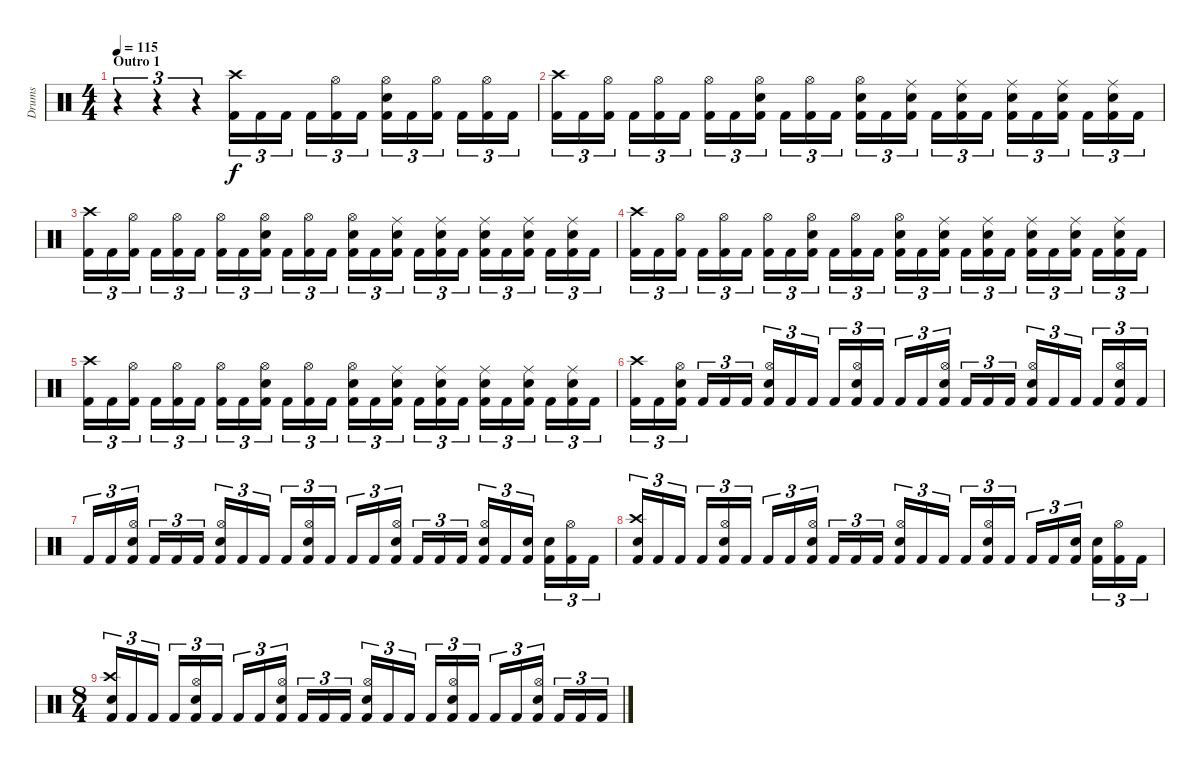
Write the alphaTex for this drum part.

\track ("Drums" "Drums") {instrument percussion}
\staff {score}
\articulation defaults
\ts (4 4)
\section ("" "Outro 1")
\tempo 115
\clef neutral
\ks c
r.4{tu (3 2) dy f} r.4{tu (3 2)} r.4{tu (3 2)} ("Kick (hit) 2" "Crash high (hit)").16{tu (3 2)} "Kick (hit) 2".16{tu (3 2)} "Kick (hit) 2".16{tu (3 2) beam splitsecondary} "Kick (hit) 2".16{tu (3 2)} ("Kick (hit) 2" "Hi-Hat (open)").16{tu (3 2)} "Kick (hit) 2".16{tu (3 2)} ("Kick (hit) 2" "Hi-Hat (open)" "Snare (hit) 2").16{tu (3 2)} "Kick (hit) 2".16{tu (3 2)} ("Kick (hit) 2" "Hi-Hat (open)").16{tu (3 2) beam splitsecondary} "Kick (hit) 2".16{tu (3 2)} ("Kick (hit) 2" "Hi-Hat (open)").16{tu (3 2)} "Kick (hit) 2".16{tu (3 2)} |
("Kick (hit) 2" "Crash high (hit)").16{tu (3 2)} "Kick (hit) 2".16{tu (3 2)} ("Kick (hit) 2" "Hi-Hat (open)").16{tu (3 2) beam splitsecondary} "Kick (hit) 2".16{tu (3 2)} ("Kick (hit) 2" "Hi-Hat (open)").16{tu (3 2)} "Kick (hit) 2".16{tu (3 2)} ("Kick (hit) 2" "Hi-Hat (open)").16{tu (3 2)} "Kick (hit) 2".16{tu (3 2)} ("Kick (hit) 2" "Hi-Hat (open)" "Snare (hit) 2").16{tu (3 2) beam splitsecondary} "Kick (hit) 2".16{tu (3 2)} ("Kick (hit) 2" "Hi-Hat (open)").16{tu (3 2)} "Kick (hit) 2".16{tu (3 2)} ("Kick (hit) 2" "Snare (hit) 2" "Hi-Hat (open)").16{tu (3 2)} "Kick (hit) 2".16{tu (3 2)} ("Kick (hit) 2" "Snare (hit) 2" "Ride (middle)").16{tu (3 2) beam splitsecondary} "Kick (hit) 2".16{tu (3 2)} ("Kick (hit) 2" "Snare (hit) 2" "Ride (middle)").16{tu (3 2)} "Kick (hit) 2".16{tu (3 2)} ("Kick (hit) 2" "Snare (hit) 2" "Ride (middle)").16{tu (3 2)} "Kick (hit) 2".16{tu (3 2)} ("Kick (hit) 2" "Snare (hit) 2" "Ride (middle)").16{tu (3 2) beam splitsecondary} "Kick (hit) 2".16{tu (3 2)} ("Kick (hit) 2" "Snare (hit) 2" "Ride (middle)").16{tu (3 2)} "Kick (hit) 2".16{tu (3 2)} |
("Kick (hit) 2" "Crash high (hit)").16{tu (3 2)} "Kick (hit) 2".16{tu (3 2)} ("Kick (hit) 2" "Hi-Hat (open)").16{tu (3 2) beam splitsecondary} "Kick (hit) 2".16{tu (3 2)} ("Kick (hit) 2" "Hi-Hat (open)").16{tu (3 2)} "Kick (hit) 2".16{tu (3 2)} ("Kick (hit) 2" "Hi-Hat (open)").16{tu (3 2)} "Kick (hit) 2".16{tu (3 2)} ("Kick (hit) 2" "Hi-Hat (open)" "Snare (hit) 2").16{tu (3 2) beam splitsecondary} "Kick (hit) 2".16{tu (3 2)} ("Kick (hit) 2" "Hi-Hat (open)").16{tu (3 2)} "Kick (hit) 2".16{tu (3 2)} ("Kick (hit) 2" "Snare (hit) 2" "Hi-Hat (open)").16{tu (3 2)} "Kick (hit) 2".16{tu (3 2)} ("Kick (hit) 2" "Snare (hit) 2" "Ride (middle)").16{tu (3 2) beam splitsecondary} "Kick (hit) 2".16{tu (3 2)} ("Kick (hit) 2" "Snare (hit) 2" "Ride (middle)").16{tu (3 2)} "Kick (hit) 2".16{tu (3 2)} ("Kick (hit) 2" "Snare (hit) 2" "Ride (middle)").16{tu (3 2)} "Kick (hit) 2".16{tu (3 2)} ("Kick (hit) 2" "Snare (hit) 2" "Ride (middle)").16{tu (3 2) beam splitsecondary} "Kick (hit) 2".16{tu (3 2)} ("Kick (hit) 2" "Snare (hit) 2" "Ride (middle)").16{tu (3 2)} "Kick (hit) 2".16{tu (3 2)} |
("Kick (hit) 2" "Crash high (hit)").16{tu (3 2)} "Kick (hit) 2".16{tu (3 2)} ("Kick (hit) 2" "Hi-Hat (open)").16{tu (3 2) beam splitsecondary} "Kick (hit) 2".16{tu (3 2)} ("Kick (hit) 2" "Hi-Hat (open)").16{tu (3 2)} "Kick (hit) 2".16{tu (3 2)} ("Kick (hit) 2" "Hi-Hat (open)").16{tu (3 2)} "Kick (hit) 2".16{tu (3 2)} ("Kick (hit) 2" "Hi-Hat (open)" "Snare (hit) 2").16{tu (3 2) beam splitsecondary} "Kick (hit) 2".16{tu (3 2)} ("Kick (hit) 2" "Hi-Hat (open)").16{tu (3 2)} "Kick (hit) 2".16{tu (3 2)} ("Kick (hit) 2" "Snare (hit) 2" "Hi-Hat (open)").16{tu (3 2)} "Kick (hit) 2".16{tu (3 2)} ("Kick (hit) 2" "Snare (hit) 2" "Ride (middle)").16{tu (3 2) beam splitsecondary} "Kick (hit) 2".16{tu (3 2)} ("Kick (hit) 2" "Snare (hit) 2" "Ride (middle)").16{tu (3 2)} "Kick (hit) 2".16{tu (3 2)} ("Kick (hit) 2" "Snare (hit) 2" "Ride (middle)").16{tu (3 2)} "Kick (hit) 2".16{tu (3 2)} ("Kick (hit) 2" "Snare (hit) 2" "Ride (middle)").16{tu (3 2) beam splitsecondary} "Kick (hit) 2".16{tu (3 2)} ("Kick (hit) 2" "Snare (hit) 2" "Ride (middle)").16{tu (3 2)} "Kick (hit) 2".16{tu (3 2)} |
("Kick (hit) 2" "Crash high (hit)").16{tu (3 2)} "Kick (hit) 2".16{tu (3 2)} ("Kick (hit) 2" "Hi-Hat (open)").16{tu (3 2) beam splitsecondary} "Kick (hit) 2".16{tu (3 2)} ("Kick (hit) 2" "Hi-Hat (open)").16{tu (3 2)} "Kick (hit) 2".16{tu (3 2)} ("Kick (hit) 2" "Hi-Hat (open)").16{tu (3 2)} "Kick (hit) 2".16{tu (3 2)} ("Kick (hit) 2" "Hi-Hat (open)" "Snare (hit) 2").16{tu (3 2) beam splitsecondary} "Kick (hit) 2".16{tu (3 2)} ("Kick (hit) 2" "Hi-Hat (open)").16{tu (3 2)} "Kick (hit) 2".16{tu (3 2)} ("Kick (hit) 2" "Snare (hit) 2" "Hi-Hat (open)").16{tu (3 2)} "Kick (hit) 2".16{tu (3 2)} ("Kick (hit) 2" "Snare (hit) 2" "Ride (middle)").16{tu (3 2) beam splitsecondary} "Kick (hit) 2".16{tu (3 2)} ("Kick (hit) 2" "Snare (hit) 2" "Ride (middle)").16{tu (3 2)} "Kick (hit) 2".16{tu (3 2)} ("Kick (hit) 2" "Snare (hit) 2" "Ride (middle)").16{tu (3 2)} "Kick (hit) 2".16{tu (3 2)} ("Kick (hit) 2" "Snare (hit) 2" "Ride (middle)").16{tu (3 2) beam splitsecondary} "Kick (hit) 2".16{tu (3 2)} ("Kick (hit) 2" "Snare (hit) 2" "Ride (middle)").16{tu (3 2)} "Kick (hit) 2".16{tu (3 2)} |
("Kick (hit) 2" "Crash high (hit)").16{tu (3 2)} "Kick (hit) 2".16{tu (3 2)} ("Kick (hit) 2" "Snare (hit) 2" "Hi-Hat (open)").16{tu (3 2) beam splitsecondary} "Kick (hit) 2".16{tu (3 2)} "Kick (hit) 2".16{tu (3 2)} "Kick (hit) 2".16{tu (3 2)} ("Kick (hit) 2" "Hi-Hat (open)" "Snare (hit) 2").16{tu (3 2)} "Kick (hit) 2".16{tu (3 2)} "Kick (hit) 2".16{tu (3 2) beam splitsecondary} "Kick (hit) 2".16{tu (3 2)} ("Kick (hit) 2" "Snare (hit) 2" "Hi-Hat (open)").16{tu (3 2)} "Kick (hit) 2".16{tu (3 2)} "Kick (hit) 2".16{tu (3 2)} "Kick (hit) 2".16{tu (3 2)} ("Kick (hit) 2" "Hi-Hat (open)" "Snare (hit) 2").16{tu (3 2) beam splitsecondary} "Kick (hit) 2".16{tu (3 2)} "Kick (hit) 2".16{tu (3 2)} "Kick (hit) 2".16{tu (3 2)} ("Kick (hit) 2" "Snare (hit) 2" "Hi-Hat (open)").16{tu (3 2)} "Kick (hit) 2".16{tu (3 2)} "Kick (hit) 2".16{tu (3 2) beam splitsecondary} "Kick (hit) 2".16{tu (3 2)} ("Kick (hit) 2" "Snare (hit) 2" "Hi-Hat (open)").16{tu (3 2)} "Kick (hit) 2".16{tu (3 2)} |
"Kick (hit) 2".16{tu (3 2)} "Kick (hit) 2".16{tu (3 2)} ("Kick (hit) 2" "Snare (hit) 2" "Hi-Hat (open)").16{tu (3 2) beam splitsecondary} "Kick (hit) 2".16{tu (3 2)} "Kick (hit) 2".16{tu (3 2)} "Kick (hit) 2".16{tu (3 2)} ("Kick (hit) 2" "Hi-Hat (open)" "Snare (hit) 2").16{tu (3 2)} "Kick (hit) 2".16{tu (3 2)} "Kick (hit) 2".16{tu (3 2) beam splitsecondary} "Kick (hit) 2".16{tu (3 2)} ("Kick (hit) 2" "Snare (hit) 2" "Hi-Hat (open)").16{tu (3 2)} "Kick (hit) 2".16{tu (3 2)} "Kick (hit) 2".16{tu (3 2)} "Kick (hit) 2".16{tu (3 2)} ("Kick (hit) 2" "Hi-Hat (open)" "Snare (hit) 2").16{tu (3 2) beam splitsecondary} "Kick (hit) 2".16{tu (3 2)} "Kick (hit) 2".16{tu (3 2)} "Kick (hit) 2".16{tu (3 2)} ("Kick (hit) 2" "Snare (hit) 2" "Hi-Hat (open)").16{tu (3 2)} "Kick (hit) 2".16{tu (3 2)} ("Kick (hit) 2" "Snare (hit) 2").16{tu (3 2) beam splitsecondary} ("Kick (hit) 2" "Snare (hit) 2").16{tu (3 2)} ("Kick (hit) 2" "Hi-Hat (open)").16{tu (3 2)} "Kick (hit) 2".16{tu (3 2)} |
("Kick (hit) 2" "Crash high (hit)" "Snare (hit) 2").16{tu (3 2)} "Kick (hit) 2".16{tu (3 2)} "Kick (hit) 2".16{tu (3 2) beam splitsecondary} "Kick (hit) 2".16{tu (3 2)} ("Kick (hit) 2" "Snare (hit) 2" "Hi-Hat (open)").16{tu (3 2)} "Kick (hit) 2".16{tu (3 2)} "Kick (hit) 2".16{tu (3 2)} "Kick (hit) 2".16{tu (3 2)} ("Kick (hit) 2" "Snare (hit) 2" "Hi-Hat (open)").16{tu (3 2) beam splitsecondary} "Kick (hit) 2".16{tu (3 2)} "Kick (hit) 2".16{tu (3 2)} "Kick (hit) 2".16{tu (3 2)} ("Kick (hit) 2" "Snare (hit) 2" "Hi-Hat (open)").16{tu (3 2)} "Kick (hit) 2".16{tu (3 2)} "Kick (hit) 2".16{tu (3 2) beam splitsecondary} "Kick (hit) 2".16{tu (3 2)} ("Kick (hit) 2" "Hi-Hat (open)" "Snare (hit) 2").16{tu (3 2)} "Kick (hit) 2".16{tu (3 2)} "Kick (hit) 2".16{tu (3 2)} "Kick (hit) 2".16{tu (3 2)} ("Kick (hit) 2" "Snare (hit) 2").16{tu (3 2) beam splitsecondary} ("Kick (hit) 2" "Snare (hit) 2").16{tu (3 2)} ("Kick (hit) 2" "Hi-Hat (open)").16{tu (3 2)} "Kick (hit) 2".16{tu (3 2)} |
\ts (8 4)
("Kick (hit) 2" "Crash high (hit)" "Snare (hit) 2").16{tu (3 2)} "Kick (hit) 2".16{tu (3 2)} "Kick (hit) 2".16{tu (3 2) beam splitsecondary} "Kick (hit) 2".16{tu (3 2)} ("Kick (hit) 2" "Snare (hit) 2" "Hi-Hat (open)").16{tu (3 2)} "Kick (hit) 2".16{tu (3 2)} "Kick (hit) 2".16{tu (3 2)} "Kick (hit) 2".16{tu (3 2)} ("Kick (hit) 2" "Snare (hit) 2" "Hi-Hat (open)").16{tu (3 2) beam splitsecondary} "Kick (hit) 2".16{tu (3 2)} "Kick (hit) 2".16{tu (3 2)} "Kick (hit) 2".16{tu (3 2)} ("Kick (hit) 2" "Snare (hit) 2" "Hi-Hat (open)").16{tu (3 2)} "Kick (hit) 2".16{tu (3 2)} "Kick (hit) 2".16{tu (3 2) beam splitsecondary} "Kick (hit) 2".16{tu (3 2)} ("Kick (hit) 2" "Hi-Hat (open)" "Snare (hit) 2").16{tu (3 2)} "Kick (hit) 2".16{tu (3 2)} "Kick (hit) 2".16{tu (3 2)} "Kick (hit) 2".16{tu (3 2)} ("Kick (hit) 2" "Snare (hit) 2" "Hi-Hat (open)").16{tu (3 2) beam splitsecondary} "Kick (hit) 2".16{tu (3 2)} "Kick (hit) 2".16{tu (3 2)} "Kick (hit) 2".16{tu (3 2)}
